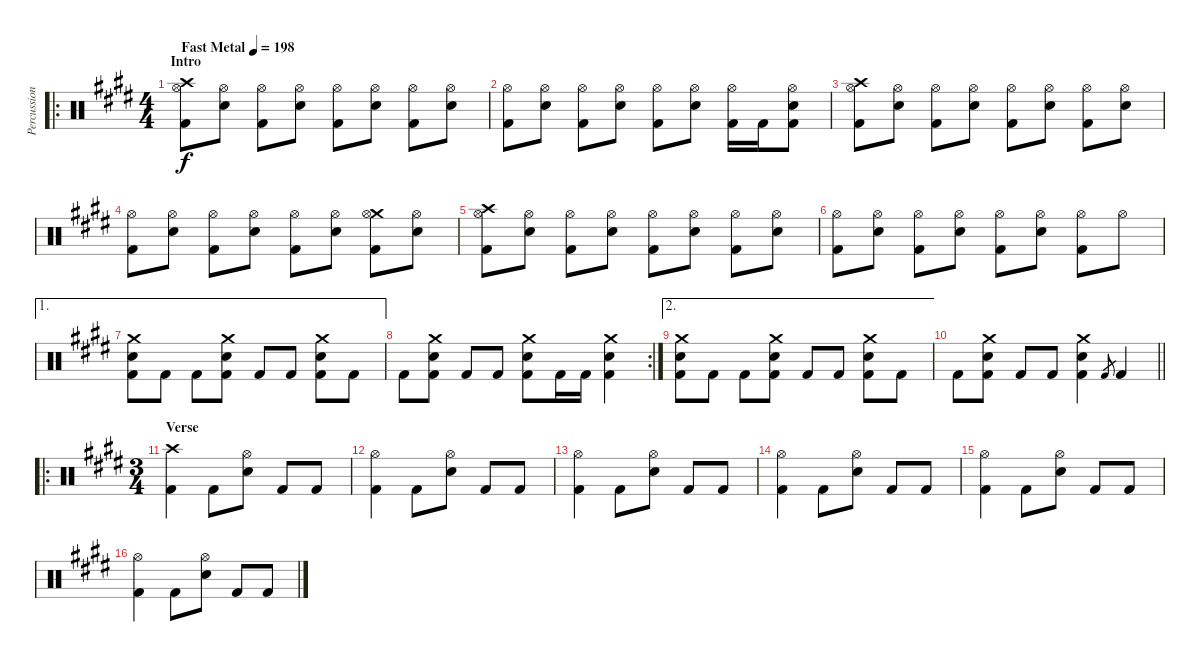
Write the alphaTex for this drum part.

\track ("Percussion" "Percussion") {instrument percussion}
\staff {score}
\articulation defaults
\ro
\ts (4 4)
\section ("" "Intro")
\tempo (198 "Fast Metal")
\clef neutral
\ks e
("Crash high (hit)" "Hi-Hat (open)" "Kick (hit) 2").8{dy f} ("Hi-Hat (open)" "Snare (hit) 2").8 ("Hi-Hat (open)" "Kick (hit) 2").8 ("Hi-Hat (open)" "Snare (hit) 2").8 ("Hi-Hat (open)" "Kick (hit) 2").8 ("Hi-Hat (open)" "Snare (hit) 2").8 ("Hi-Hat (open)" "Kick (hit) 2").8 ("Hi-Hat (open)" "Snare (hit) 2").8 |
("Hi-Hat (open)" "Kick (hit) 2").8 ("Hi-Hat (open)" "Snare (hit) 2").8 ("Hi-Hat (open)" "Kick (hit) 2").8 ("Hi-Hat (open)" "Snare (hit) 2").8 ("Hi-Hat (open)" "Kick (hit) 2").8 ("Hi-Hat (open)" "Snare (hit) 2").8 ("Hi-Hat (open)" "Kick (hit) 2").16 "Kick (hit) 2".16 ("Hi-Hat (open)" "Snare (hit) 2" "Kick (hit) 2").8 |
("Crash high (hit)" "Hi-Hat (open)" "Kick (hit) 2").8 ("Hi-Hat (open)" "Snare (hit) 2").8 ("Hi-Hat (open)" "Kick (hit) 2").8 ("Hi-Hat (open)" "Snare (hit) 2").8 ("Hi-Hat (open)" "Kick (hit) 2").8 ("Hi-Hat (open)" "Snare (hit) 2").8 ("Hi-Hat (open)" "Kick (hit) 2").8 ("Hi-Hat (open)" "Snare (hit) 2").8 |
("Hi-Hat (open)" "Kick (hit) 2").8 ("Hi-Hat (open)" "Snare (hit) 2").8 ("Hi-Hat (open)" "Kick (hit) 2").8 ("Hi-Hat (open)" "Snare (hit) 2").8 ("Hi-Hat (open)" "Kick (hit) 2").8 ("Hi-Hat (open)" "Snare (hit) 2").8 ("Crash medium (hit)" "Hi-Hat (open)" "Kick (hit) 2").8 ("Hi-Hat (open)" "Snare (hit) 2").8 |
("Crash high (hit)" "Hi-Hat (open)" "Kick (hit) 2").8 ("Hi-Hat (open)" "Snare (hit) 2").8 ("Hi-Hat (open)" "Kick (hit) 2").8 ("Hi-Hat (open)" "Snare (hit) 2").8 ("Hi-Hat (open)" "Kick (hit) 2").8 ("Hi-Hat (open)" "Snare (hit) 2").8 ("Hi-Hat (open)" "Kick (hit) 2").8 ("Hi-Hat (open)" "Snare (hit) 2").8 |
("Hi-Hat (open)" "Kick (hit) 2").8 ("Hi-Hat (open)" "Snare (hit) 2").8 ("Hi-Hat (open)" "Kick (hit) 2").8 ("Hi-Hat (open)" "Snare (hit) 2").8 ("Hi-Hat (open)" "Kick (hit) 2").8 ("Hi-Hat (open)" "Snare (hit) 2").8 ("Hi-Hat (open)" "Kick (hit) 2").8 "Hi-Hat (open)".8 |
\ae 1
("Crash medium (hit)" "Snare (hit) 2" "Kick (hit) 2").8 "Kick (hit) 2".8 "Kick (hit) 2".8 ("Crash medium (hit)" "Snare (hit) 2" "Kick (hit) 2").8 "Kick (hit) 2".8 "Kick (hit) 2".8 ("Crash medium (hit)" "Snare (hit) 2" "Kick (hit) 2").8 "Kick (hit) 2".8 |
\rc 2 "Kick (hit) 2".8
("Crash medium (hit)" "Snare (hit) 2" "Kick (hit) 2").8 "Kick (hit) 2".8 "Kick (hit) 2".8 ("Crash medium (hit)" "Snare (hit) 2" "Kick (hit) 2").8 "Kick (hit) 2".16 "Kick (hit) 2".16 ("Crash medium (hit)" "Snare (hit) 2" "Kick (hit) 2").4 |
\ae 2
("Crash medium (hit)" "Snare (hit) 2" "Kick (hit) 2").8 "Kick (hit) 2".8 "Kick (hit) 2".8 ("Crash medium (hit)" "Snare (hit) 2" "Kick (hit) 2").8 "Kick (hit) 2".8 "Kick (hit) 2".8 ("Crash medium (hit)" "Snare (hit) 2" "Kick (hit) 2").8 "Kick (hit) 2".8 |
\barLineRight lightlight "Kick (hit) 2".8
("Crash medium (hit)" "Snare (hit) 2" "Kick (hit) 2").8 "Kick (hit) 2".8 "Kick (hit) 2".8 ("Crash medium (hit)" "Snare (hit) 2" "Kick (hit) 2").4 "Kick (hit) 2".8{gr} "Kick (hit) 2".4 |
\ro
\ts (3 4)
\section ("" "Verse")
("Crash high (hit)" "Kick (hit) 2").4 "Kick (hit) 2".8 ("Hi-Hat (open)" "Snare (hit) 2").8 "Kick (hit) 2".8 "Kick (hit) 2".8 |
("Hi-Hat (open)" "Kick (hit) 2").4 "Kick (hit) 2".8 ("Hi-Hat (open)" "Snare (hit) 2").8 "Kick (hit) 2".8 "Kick (hit) 2".8 |
("Hi-Hat (open)" "Kick (hit) 2").4 "Kick (hit) 2".8 ("Hi-Hat (open)" "Snare (hit) 2").8 "Kick (hit) 2".8 "Kick (hit) 2".8 |
("Hi-Hat (open)" "Kick (hit) 2").4 "Kick (hit) 2".8 ("Hi-Hat (open)" "Snare (hit) 2").8 "Kick (hit) 2".8 "Kick (hit) 2".8 |
("Hi-Hat (open)" "Kick (hit) 2").4 "Kick (hit) 2".8 ("Hi-Hat (open)" "Snare (hit) 2").8 "Kick (hit) 2".8 "Kick (hit) 2".8 |
("Hi-Hat (open)" "Kick (hit) 2").4 "Kick (hit) 2".8 ("Hi-Hat (open)" "Snare (hit) 2").8 "Kick (hit) 2".8 "Kick (hit) 2".8
